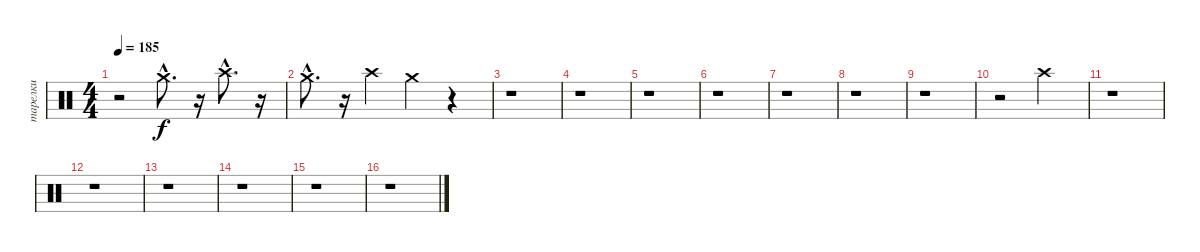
\track ("тарелки" "тарелки") {instrument percussion}
\staff {score}
\articulation defaults
\ts (4 4)
\tempo 185
\clef neutral
\ks c
r.2{dy f} "Crash medium (hit)"{hac}.8{d} r.16 "Crash high (hit)"{hac}.8{d} r.16 |
"Crash medium (hit)"{hac}.8{d} r.16 "Crash high (hit)".4 "Crash medium (hit)".4 r.4 |
r.1 |
r.1 |
r.1 |
r.1 |
r.1 |
r.1 |
r.1 |
r.2 "Crash high (hit)".2 |
r.1 |
r.1 |
r.1 |
r.1 |
r.1 |
r.1
